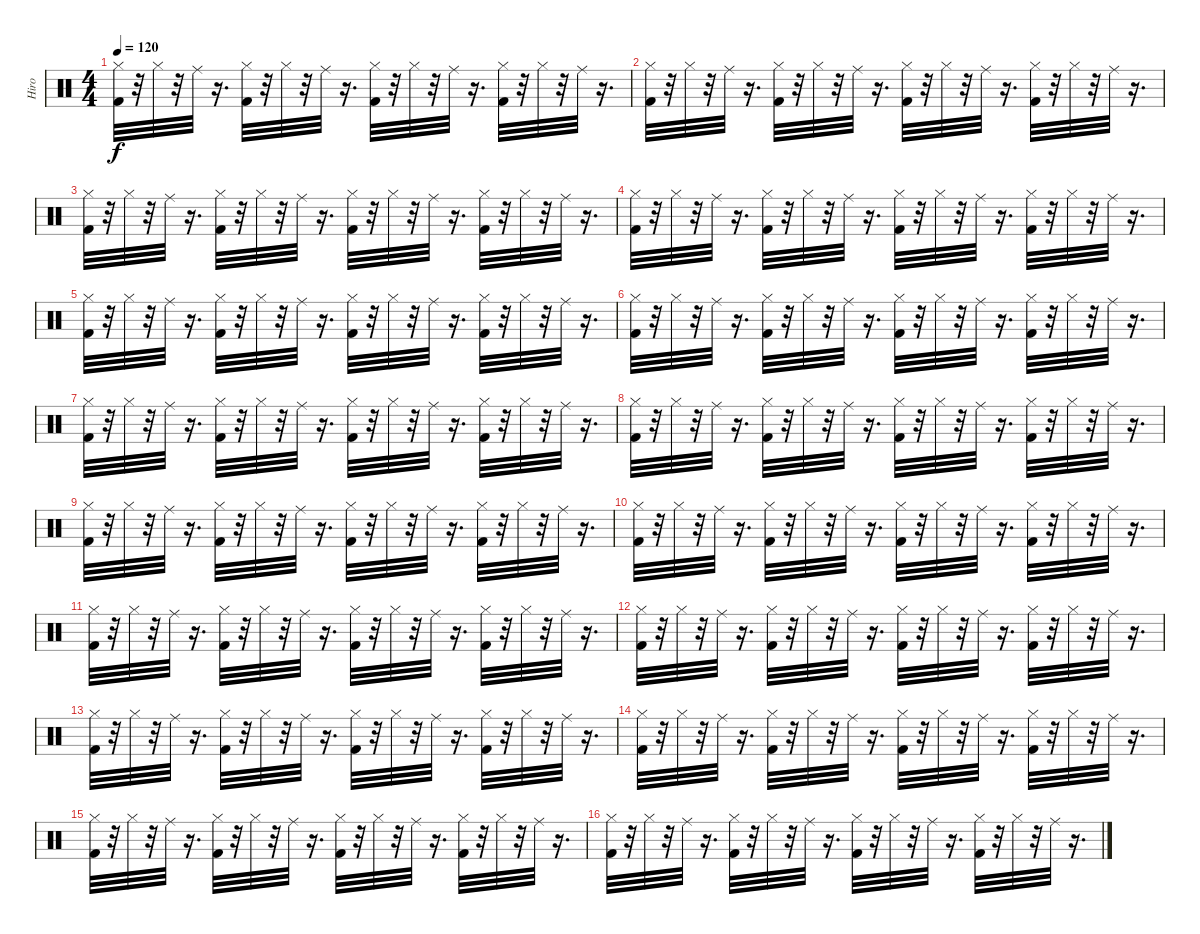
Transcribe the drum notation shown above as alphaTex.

\track ("Hiro" "Hiro") {instrument percussion}
\staff {score}
\articulation defaults
\ts (4 4)
\tempo 120
\clef neutral
\ks c
("Kick (hit) 2" "Hi-Hat (closed)").32{dy f} r.32 "Hi-Hat (closed)".32 r.32 "Ride (middle)".32 r.16{d} ("Kick (hit) 2" "Hi-Hat (closed)").32 r.32 "Hi-Hat (closed)".32 r.32 "Ride (middle)".32 r.16{d} ("Kick (hit) 2" "Hi-Hat (closed)").32 r.32 "Hi-Hat (closed)".32 r.32 "Ride (middle)".32 r.16{d} ("Kick (hit) 2" "Hi-Hat (closed)").32 r.32 "Hi-Hat (closed)".32 r.32 "Ride (middle)".32 r.16{d} |
("Kick (hit) 2" "Hi-Hat (closed)").32 r.32 "Hi-Hat (closed)".32 r.32 "Ride (middle)".32 r.16{d} ("Kick (hit) 2" "Hi-Hat (closed)").32 r.32 "Hi-Hat (closed)".32 r.32 "Ride (middle)".32 r.16{d} ("Kick (hit) 2" "Hi-Hat (closed)").32 r.32 "Hi-Hat (closed)".32 r.32 "Ride (middle)".32 r.16{d} ("Kick (hit) 2" "Hi-Hat (closed)").32 r.32 "Hi-Hat (closed)".32 r.32 "Ride (middle)".32 r.16{d} |
("Kick (hit) 2" "Hi-Hat (closed)").32 r.32 "Hi-Hat (closed)".32 r.32 "Ride (middle)".32 r.16{d} ("Kick (hit) 2" "Hi-Hat (closed)").32 r.32 "Hi-Hat (closed)".32 r.32 "Ride (middle)".32 r.16{d} ("Kick (hit) 2" "Hi-Hat (closed)").32 r.32 "Hi-Hat (closed)".32 r.32 "Ride (middle)".32 r.16{d} ("Kick (hit) 2" "Hi-Hat (closed)").32 r.32 "Hi-Hat (closed)".32 r.32 "Ride (middle)".32 r.16{d} |
("Kick (hit) 2" "Hi-Hat (closed)").32 r.32 "Hi-Hat (closed)".32 r.32 "Ride (middle)".32 r.16{d} ("Kick (hit) 2" "Hi-Hat (closed)").32 r.32 "Hi-Hat (closed)".32 r.32 "Ride (middle)".32 r.16{d} ("Kick (hit) 2" "Hi-Hat (closed)").32 r.32 "Hi-Hat (closed)".32 r.32 "Ride (middle)".32 r.16{d} ("Kick (hit) 2" "Hi-Hat (closed)").32 r.32 "Hi-Hat (closed)".32 r.32 "Ride (middle)".32 r.16{d} |
("Kick (hit) 2" "Hi-Hat (closed)").32 r.32 "Hi-Hat (closed)".32 r.32 "Ride (middle)".32 r.16{d} ("Kick (hit) 2" "Hi-Hat (closed)").32 r.32 "Hi-Hat (closed)".32 r.32 "Ride (middle)".32 r.16{d} ("Kick (hit) 2" "Hi-Hat (closed)").32 r.32 "Hi-Hat (closed)".32 r.32 "Ride (middle)".32 r.16{d} ("Kick (hit) 2" "Hi-Hat (closed)").32 r.32 "Hi-Hat (closed)".32 r.32 "Ride (middle)".32 r.16{d} |
("Kick (hit) 2" "Hi-Hat (closed)").32 r.32 "Hi-Hat (closed)".32 r.32 "Ride (middle)".32 r.16{d} ("Kick (hit) 2" "Hi-Hat (closed)").32 r.32 "Hi-Hat (closed)".32 r.32 "Ride (middle)".32 r.16{d} ("Kick (hit) 2" "Hi-Hat (closed)").32 r.32 "Hi-Hat (closed)".32 r.32 "Ride (middle)".32 r.16{d} ("Kick (hit) 2" "Hi-Hat (closed)").32 r.32 "Hi-Hat (closed)".32 r.32 "Ride (middle)".32 r.16{d} |
("Kick (hit) 2" "Hi-Hat (closed)").32 r.32 "Hi-Hat (closed)".32 r.32 "Ride (middle)".32 r.16{d} ("Kick (hit) 2" "Hi-Hat (closed)").32 r.32 "Hi-Hat (closed)".32 r.32 "Ride (middle)".32 r.16{d} ("Kick (hit) 2" "Hi-Hat (closed)").32 r.32 "Hi-Hat (closed)".32 r.32 "Ride (middle)".32 r.16{d} ("Kick (hit) 2" "Hi-Hat (closed)").32 r.32 "Hi-Hat (closed)".32 r.32 "Ride (middle)".32 r.16{d} |
("Kick (hit) 2" "Hi-Hat (closed)").32 r.32 "Hi-Hat (closed)".32 r.32 "Ride (middle)".32 r.16{d} ("Kick (hit) 2" "Hi-Hat (closed)").32 r.32 "Hi-Hat (closed)".32 r.32 "Ride (middle)".32 r.16{d} ("Kick (hit) 2" "Hi-Hat (closed)").32 r.32 "Hi-Hat (closed)".32 r.32 "Ride (middle)".32 r.16{d} ("Kick (hit) 2" "Hi-Hat (closed)").32 r.32 "Hi-Hat (closed)".32 r.32 "Ride (middle)".32 r.16{d} |
("Kick (hit) 2" "Hi-Hat (closed)").32 r.32 "Hi-Hat (closed)".32 r.32 "Ride (middle)".32 r.16{d} ("Kick (hit) 2" "Hi-Hat (closed)").32 r.32 "Hi-Hat (closed)".32 r.32 "Ride (middle)".32 r.16{d} ("Kick (hit) 2" "Hi-Hat (closed)").32 r.32 "Hi-Hat (closed)".32 r.32 "Ride (middle)".32 r.16{d} ("Kick (hit) 2" "Hi-Hat (closed)").32 r.32 "Hi-Hat (closed)".32 r.32 "Ride (middle)".32 r.16{d} |
("Kick (hit) 2" "Hi-Hat (closed)").32 r.32 "Hi-Hat (closed)".32 r.32 "Ride (middle)".32 r.16{d} ("Kick (hit) 2" "Hi-Hat (closed)").32 r.32 "Hi-Hat (closed)".32 r.32 "Ride (middle)".32 r.16{d} ("Kick (hit) 2" "Hi-Hat (closed)").32 r.32 "Hi-Hat (closed)".32 r.32 "Ride (middle)".32 r.16{d} ("Kick (hit) 2" "Hi-Hat (closed)").32 r.32 "Hi-Hat (closed)".32 r.32 "Ride (middle)".32 r.16{d} |
("Kick (hit) 2" "Hi-Hat (closed)").32 r.32 "Hi-Hat (closed)".32 r.32 "Ride (middle)".32 r.16{d} ("Kick (hit) 2" "Hi-Hat (closed)").32 r.32 "Hi-Hat (closed)".32 r.32 "Ride (middle)".32 r.16{d} ("Kick (hit) 2" "Hi-Hat (closed)").32 r.32 "Hi-Hat (closed)".32 r.32 "Ride (middle)".32 r.16{d} ("Kick (hit) 2" "Hi-Hat (closed)").32 r.32 "Hi-Hat (closed)".32 r.32 "Ride (middle)".32 r.16{d} |
("Kick (hit) 2" "Hi-Hat (closed)").32 r.32 "Hi-Hat (closed)".32 r.32 "Ride (middle)".32 r.16{d} ("Kick (hit) 2" "Hi-Hat (closed)").32 r.32 "Hi-Hat (closed)".32 r.32 "Ride (middle)".32 r.16{d} ("Kick (hit) 2" "Hi-Hat (closed)").32 r.32 "Hi-Hat (closed)".32 r.32 "Ride (middle)".32 r.16{d} ("Kick (hit) 2" "Hi-Hat (closed)").32 r.32 "Hi-Hat (closed)".32 r.32 "Ride (middle)".32 r.16{d} |
("Kick (hit) 2" "Hi-Hat (closed)").32 r.32 "Hi-Hat (closed)".32 r.32 "Ride (middle)".32 r.16{d} ("Kick (hit) 2" "Hi-Hat (closed)").32 r.32 "Hi-Hat (closed)".32 r.32 "Ride (middle)".32 r.16{d} ("Kick (hit) 2" "Hi-Hat (closed)").32 r.32 "Hi-Hat (closed)".32 r.32 "Ride (middle)".32 r.16{d} ("Kick (hit) 2" "Hi-Hat (closed)").32 r.32 "Hi-Hat (closed)".32 r.32 "Ride (middle)".32 r.16{d} |
("Kick (hit) 2" "Hi-Hat (closed)").32 r.32 "Hi-Hat (closed)".32 r.32 "Ride (middle)".32 r.16{d} ("Kick (hit) 2" "Hi-Hat (closed)").32 r.32 "Hi-Hat (closed)".32 r.32 "Ride (middle)".32 r.16{d} ("Kick (hit) 2" "Hi-Hat (closed)").32 r.32 "Hi-Hat (closed)".32 r.32 "Ride (middle)".32 r.16{d} ("Kick (hit) 2" "Hi-Hat (closed)").32 r.32 "Hi-Hat (closed)".32 r.32 "Ride (middle)".32 r.16{d} |
("Kick (hit) 2" "Hi-Hat (closed)").32 r.32 "Hi-Hat (closed)".32 r.32 "Ride (middle)".32 r.16{d} ("Kick (hit) 2" "Hi-Hat (closed)").32 r.32 "Hi-Hat (closed)".32 r.32 "Ride (middle)".32 r.16{d} ("Kick (hit) 2" "Hi-Hat (closed)").32 r.32 "Hi-Hat (closed)".32 r.32 "Ride (middle)".32 r.16{d} ("Kick (hit) 2" "Hi-Hat (closed)").32 r.32 "Hi-Hat (closed)".32 r.32 "Ride (middle)".32 r.16{d} |
("Kick (hit) 2" "Hi-Hat (closed)").32 r.32 "Hi-Hat (closed)".32 r.32 "Ride (middle)".32 r.16{d} ("Kick (hit) 2" "Hi-Hat (closed)").32 r.32 "Hi-Hat (closed)".32 r.32 "Ride (middle)".32 r.16{d} ("Kick (hit) 2" "Hi-Hat (closed)").32 r.32 "Hi-Hat (closed)".32 r.32 "Ride (middle)".32 r.16{d} ("Kick (hit) 2" "Hi-Hat (closed)").32 r.32 "Hi-Hat (closed)".32 r.32 "Ride (middle)".32 r.16{d}
